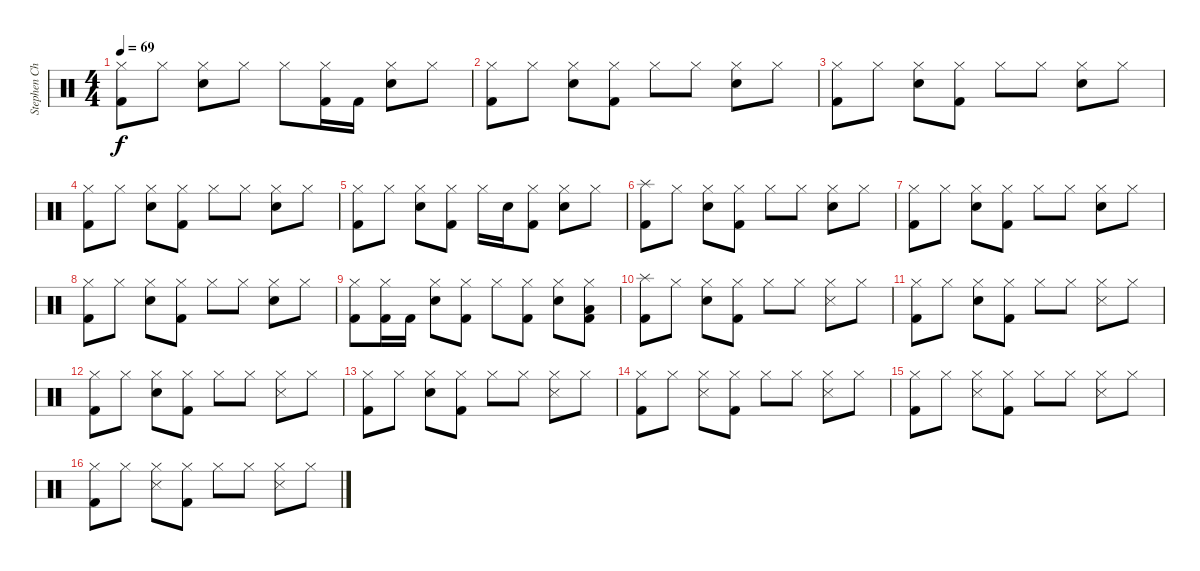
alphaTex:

\track ("Stephen Chopek" "Stephen Ch") {instrument percussion}
\staff {score}
\articulation defaults
\ts (4 4)
\tempo 69
\clef neutral
\ks c
("Hi-Hat (closed)" "Kick (hit) 2").8{dy f} "Hi-Hat (closed)".8 ("Hi-Hat (closed)" "Snare (hit) 2").8 "Hi-Hat (closed)".8 "Hi-Hat (closed)".8 ("Hi-Hat (closed)" "Kick (hit) 2").16 "Kick (hit) 2".16 ("Hi-Hat (closed)" "Snare (hit) 2").8 "Hi-Hat (closed)".8 |
("Hi-Hat (closed)" "Kick (hit) 2").8 "Hi-Hat (closed)".8 ("Hi-Hat (closed)" "Snare (hit) 2").8 ("Hi-Hat (closed)" "Kick (hit) 2").8 "Hi-Hat (closed)".8 "Hi-Hat (closed)".8 ("Hi-Hat (closed)" "Snare (hit) 2").8 "Hi-Hat (closed)".8 |
("Hi-Hat (closed)" "Kick (hit) 2").8 "Hi-Hat (closed)".8 ("Hi-Hat (closed)" "Snare (hit) 2").8 ("Hi-Hat (closed)" "Kick (hit) 2").8 "Hi-Hat (closed)".8 "Hi-Hat (closed)".8 ("Hi-Hat (closed)" "Snare (hit) 2").8 "Hi-Hat (closed)".8 |
("Hi-Hat (closed)" "Kick (hit) 2").8 "Hi-Hat (closed)".8 ("Hi-Hat (closed)" "Snare (hit) 2").8 ("Hi-Hat (closed)" "Kick (hit) 2").8 "Hi-Hat (closed)".8 "Hi-Hat (closed)".8 ("Hi-Hat (closed)" "Snare (hit) 2").8 "Hi-Hat (closed)".8 |
("Hi-Hat (closed)" "Kick (hit) 2").8 "Hi-Hat (closed)".8 ("Hi-Hat (closed)" "Snare (hit) 2").8 ("Hi-Hat (closed)" "Kick (hit) 2").8 "Hi-Hat (closed)".16 "Snare (hit) 2".16 ("Hi-Hat (closed)" "Kick (hit) 2").8 ("Hi-Hat (closed)" "Snare (hit) 2").8 "Hi-Hat (closed)".8 |
("Splash (hit)" "Kick (hit) 2").8 "Hi-Hat (closed)".8 ("Hi-Hat (closed)" "Snare (hit) 2").8 ("Hi-Hat (closed)" "Kick (hit) 2").8 "Hi-Hat (closed)".8 "Hi-Hat (closed)".8 ("Hi-Hat (closed)" "Snare (hit) 2").8 "Hi-Hat (closed)".8 |
("Hi-Hat (closed)" "Kick (hit) 2").8 "Hi-Hat (closed)".8 ("Hi-Hat (closed)" "Snare (hit) 2").8 ("Hi-Hat (closed)" "Kick (hit) 2").8 "Hi-Hat (closed)".8 "Hi-Hat (closed)".8 ("Hi-Hat (closed)" "Snare (hit) 2").8 "Hi-Hat (closed)".8 |
("Hi-Hat (closed)" "Kick (hit) 2").8 "Hi-Hat (closed)".8 ("Hi-Hat (closed)" "Snare (hit) 2").8 ("Hi-Hat (closed)" "Kick (hit) 2").8 "Hi-Hat (closed)".8 "Hi-Hat (closed)".8 ("Hi-Hat (closed)" "Snare (hit) 2").8 "Hi-Hat (closed)".8 |
("Hi-Hat (closed)" "Kick (hit) 2").8 ("Hi-Hat (closed)" "Kick (hit) 2").16 "Kick (hit) 2".16 ("Hi-Hat (closed)" "Snare (hit) 2").8 ("Hi-Hat (closed)" "Kick (hit) 2").8 "Hi-Hat (closed)".8 ("Hi-Hat (closed)" "Kick (hit) 2").8 ("Hi-Hat (closed)" "Snare (hit) 2").8 ("Hi-Hat (closed)" "Low Floor Tom (hit)" "Kick (hit) 2").8 |
("Splash (hit)" "Kick (hit) 2").8{volume 6} "Hi-Hat (closed)".8 ("Hi-Hat (closed)" "Snare (hit) 2").8 ("Hi-Hat (closed)" "Kick (hit) 2").8 "Hi-Hat (closed)".8 "Hi-Hat (closed)".8 ("Hi-Hat (closed)" "Snare (side stick) 3").8 "Hi-Hat (closed)".8 |
("Hi-Hat (closed)" "Kick (hit) 2").8 "Hi-Hat (closed)".8 ("Hi-Hat (closed)" "Snare (hit) 2").8 ("Hi-Hat (closed)" "Kick (hit) 2").8 "Hi-Hat (closed)".8 "Hi-Hat (closed)".8 ("Hi-Hat (closed)" "Snare (side stick) 3").8 "Hi-Hat (closed)".8 |
("Hi-Hat (closed)" "Kick (hit) 2").8 "Hi-Hat (closed)".8 ("Hi-Hat (closed)" "Snare (hit) 2").8 ("Hi-Hat (closed)" "Kick (hit) 2").8 "Hi-Hat (closed)".8 "Hi-Hat (closed)".8 ("Hi-Hat (closed)" "Snare (side stick) 3").8 "Hi-Hat (closed)".8 |
("Hi-Hat (closed)" "Kick (hit) 2").8 "Hi-Hat (closed)".8 ("Hi-Hat (closed)" "Snare (hit) 2").8 ("Hi-Hat (closed)" "Kick (hit) 2").8 "Hi-Hat (closed)".8 "Hi-Hat (closed)".8 ("Hi-Hat (closed)" "Snare (side stick) 3").8 "Hi-Hat (closed)".8 |
("Hi-Hat (closed)" "Kick (hit) 2").8 "Hi-Hat (closed)".8 ("Hi-Hat (closed)" "Snare (side stick) 3").8 ("Hi-Hat (closed)" "Kick (hit) 2").8 "Hi-Hat (closed)".8 "Hi-Hat (closed)".8 ("Hi-Hat (closed)" "Snare (side stick) 3").8 "Hi-Hat (closed)".8 |
("Hi-Hat (closed)" "Kick (hit) 2").8 "Hi-Hat (closed)".8 ("Hi-Hat (closed)" "Snare (side stick) 3").8 ("Hi-Hat (closed)" "Kick (hit) 2").8 "Hi-Hat (closed)".8 "Hi-Hat (closed)".8 ("Hi-Hat (closed)" "Snare (side stick) 3").8 "Hi-Hat (closed)".8 |
("Hi-Hat (closed)" "Kick (hit) 2").8 "Hi-Hat (closed)".8 ("Hi-Hat (closed)" "Snare (side stick) 3").8 ("Hi-Hat (closed)" "Kick (hit) 2").8 "Hi-Hat (closed)".8 "Hi-Hat (closed)".8 ("Hi-Hat (closed)" "Snare (side stick) 3").8 "Hi-Hat (closed)".8
